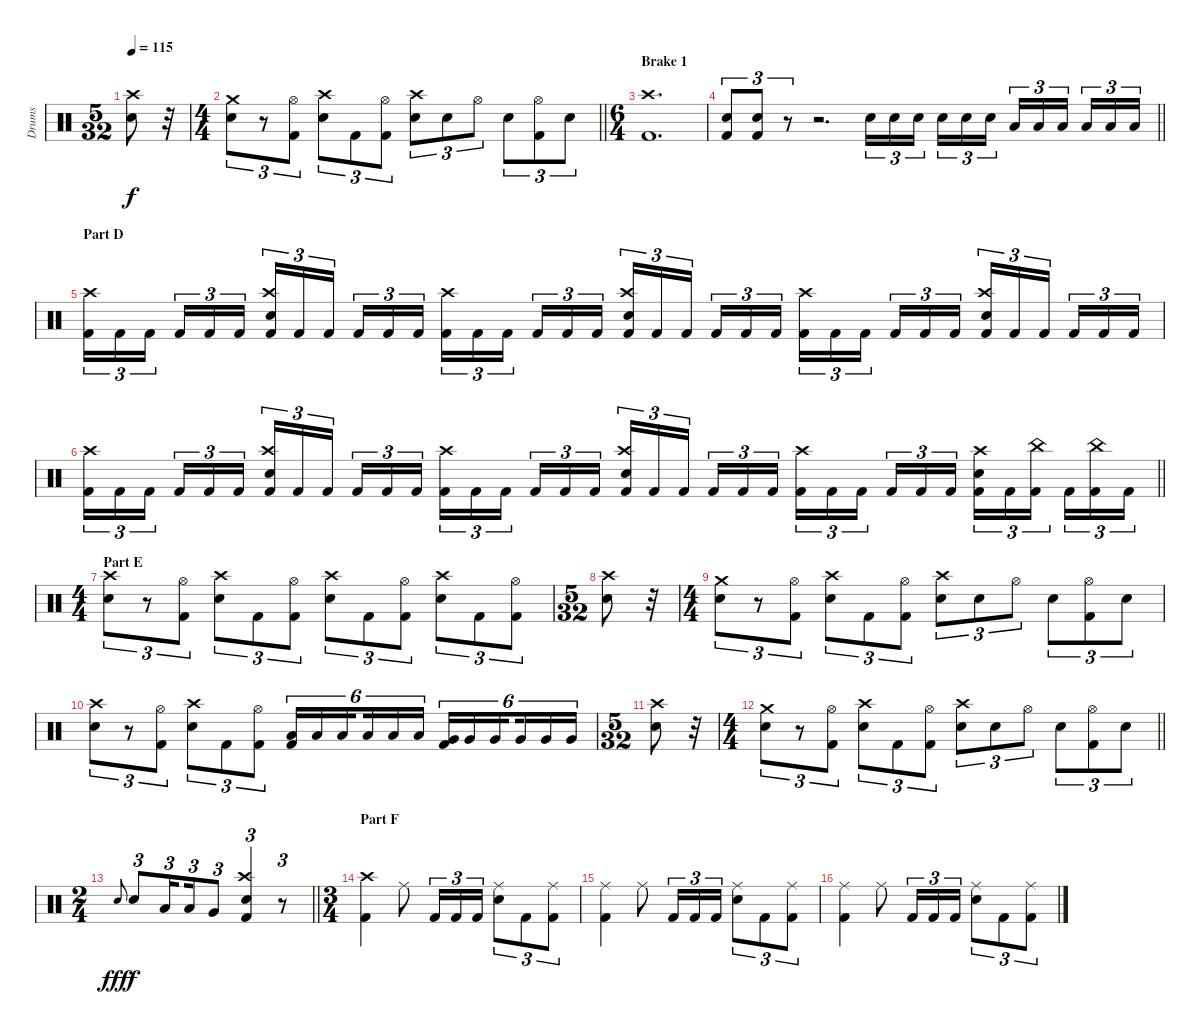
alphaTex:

\track ("Drums" "Drums") {instrument percussion}
\staff {score}
\articulation defaults
\ts (5 32)
\tempo 115
\clef neutral
\ks c
("Snare (hit) 2" "Crash high (hit)").8{dy f} r.32 |
\ts (4 4)
\barLineRight lightlight
("Crash medium (hit)" "Snare (hit) 2").8{tu (3 2)} r.8{tu (3 2)} ("Hi-Hat (open)" "Kick (hit) 2").8{tu (3 2)} ("Crash high (hit)" "Snare (hit) 2").8{tu (3 2)} "Kick (hit) 2".8{tu (3 2)} ("Kick (hit) 2" "Hi-Hat (open)").8{tu (3 2)} ("Snare (hit) 2" "Crash high (hit)").8{tu (3 2)} "Snare (hit) 2".8{tu (3 2)} "Hi-Hat (open)".8{tu (3 2)} "Snare (hit) 2".8{tu (3 2)} ("Hi-Hat (open)" "Kick (hit) 2").8{tu (3 2)} "Snare (hit) 2".8{tu (3 2)} |
\ts (6 4)
\section ("" "Brake 1")
("Kick (hit) 2" "Crash high (hit)").1{d} |
\barLineRight lightlight
("Snare (hit) 2" "Kick (hit) 2").8{tu (3 2)} ("Snare (hit) 2" "Kick (hit) 2").8{tu (3 2)} r.8{tu (3 2)} r.2{d} "Snare (hit) 2".16{tu (3 2)} "Snare (hit) 2".16{tu (3 2)} "Snare (hit) 2".16{tu (3 2) beam splitsecondary} "Snare (hit) 2".16{tu (3 2)} "Snare (hit) 2".16{tu (3 2)} "Snare (hit) 2".16{tu (3 2) beam splitsecondary} "Low Tom (hit)".16{tu (3 2)} "Low Tom (hit)".16{tu (3 2)} "Low Tom (hit)".16{tu (3 2) beam splitsecondary} "Low Tom (hit)".16{tu (3 2)} "Low Tom (hit)".16{tu (3 2)} "Low Tom (hit)".16{tu (3 2)} |
\section ("" "Part D")
("Kick (hit) 2" "Crash high (hit)").16{tu (3 2)} "Kick (hit) 2".16{tu (3 2)} "Kick (hit) 2".16{tu (3 2) beam splitsecondary} "Kick (hit) 2".16{tu (3 2)} "Kick (hit) 2".16{tu (3 2)} "Kick (hit) 2".16{tu (3 2) beam splitsecondary} ("Kick (hit) 2" "Crash high (hit)" "Snare (hit) 2").16{tu (3 2)} "Kick (hit) 2".16{tu (3 2)} "Kick (hit) 2".16{tu (3 2) beam splitsecondary} "Kick (hit) 2".16{tu (3 2)} "Kick (hit) 2".16{tu (3 2)} "Kick (hit) 2".16{tu (3 2) beam splitsecondary} ("Kick (hit) 2" "Crash high (hit)").16{tu (3 2)} "Kick (hit) 2".16{tu (3 2)} "Kick (hit) 2".16{tu (3 2) beam splitsecondary} "Kick (hit) 2".16{tu (3 2)} "Kick (hit) 2".16{tu (3 2)} "Kick (hit) 2".16{tu (3 2)} ("Kick (hit) 2" "Crash high (hit)" "Snare (hit) 2").16{tu (3 2)} "Kick (hit) 2".16{tu (3 2)} "Kick (hit) 2".16{tu (3 2) beam splitsecondary} "Kick (hit) 2".16{tu (3 2)} "Kick (hit) 2".16{tu (3 2)} "Kick (hit) 2".16{tu (3 2) beam splitsecondary} ("Kick (hit) 2" "Crash high (hit)").16{tu (3 2)} "Kick (hit) 2".16{tu (3 2)} "Kick (hit) 2".16{tu (3 2) beam splitsecondary} "Kick (hit) 2".16{tu (3 2)} "Kick (hit) 2".16{tu (3 2)} "Kick (hit) 2".16{tu (3 2) beam splitsecondary} ("Crash high (hit)" "Kick (hit) 2" "Snare (hit) 2").16{tu (3 2)} "Kick (hit) 2".16{tu (3 2)} "Kick (hit) 2".16{tu (3 2) beam splitsecondary} "Kick (hit) 2".16{tu (3 2)} "Kick (hit) 2".16{tu (3 2)} "Kick (hit) 2".16{tu (3 2)} |
\barLineRight lightlight
("Kick (hit) 2" "Crash high (hit)").16{tu (3 2)} "Kick (hit) 2".16{tu (3 2)} "Kick (hit) 2".16{tu (3 2) beam splitsecondary} "Kick (hit) 2".16{tu (3 2)} "Kick (hit) 2".16{tu (3 2)} "Kick (hit) 2".16{tu (3 2) beam splitsecondary} ("Kick (hit) 2" "Crash high (hit)" "Snare (hit) 2").16{tu (3 2)} "Kick (hit) 2".16{tu (3 2)} "Kick (hit) 2".16{tu (3 2) beam splitsecondary} "Kick (hit) 2".16{tu (3 2)} "Kick (hit) 2".16{tu (3 2)} "Kick (hit) 2".16{tu (3 2) beam splitsecondary} ("Kick (hit) 2" "Crash high (hit)").16{tu (3 2)} "Kick (hit) 2".16{tu (3 2)} "Kick (hit) 2".16{tu (3 2) beam splitsecondary} "Kick (hit) 2".16{tu (3 2)} "Kick (hit) 2".16{tu (3 2)} "Kick (hit) 2".16{tu (3 2)} ("Kick (hit) 2" "Crash high (hit)" "Snare (hit) 2").16{tu (3 2)} "Kick (hit) 2".16{tu (3 2)} "Kick (hit) 2".16{tu (3 2) beam splitsecondary} "Kick (hit) 2".16{tu (3 2)} "Kick (hit) 2".16{tu (3 2)} "Kick (hit) 2".16{tu (3 2) beam splitsecondary} ("Kick (hit) 2" "Crash high (hit)").16{tu (3 2)} "Kick (hit) 2".16{tu (3 2)} "Kick (hit) 2".16{tu (3 2) beam splitsecondary} "Kick (hit) 2".16{tu (3 2)} "Kick (hit) 2".16{tu (3 2)} "Kick (hit) 2".16{tu (3 2) beam splitsecondary} ("Crash high (hit)" "Kick (hit) 2" "Snare (hit) 2").16{tu (3 2)} "Kick (hit) 2".16{tu (3 2)} ("China (hit)" "Kick (hit) 2").16{tu (3 2) beam splitsecondary} "Kick (hit) 2".16{tu (3 2)} ("China (hit)" "Kick (hit) 2").16{tu (3 2)} "Kick (hit) 2".16{tu (3 2)} |
\ts (4 4)
\section ("" "Part E")
("Crash high (hit)" "Snare (hit) 2").8{tu (3 2)} r.8{tu (3 2)} ("Hi-Hat (open)" "Kick (hit) 2").8{tu (3 2)} ("Crash high (hit)" "Snare (hit) 2").8{tu (3 2)} "Kick (hit) 2".8{tu (3 2)} ("Kick (hit) 2" "Hi-Hat (open)").8{tu (3 2)} ("Snare (hit) 2" "Crash high (hit)").8{tu (3 2)} "Kick (hit) 2".8{tu (3 2)} ("Kick (hit) 2" "Hi-Hat (open)").8{tu (3 2)} ("Snare (hit) 2" "Crash high (hit)").8{tu (3 2)} "Kick (hit) 2".8{tu (3 2)} ("Kick (hit) 2" "Hi-Hat (open)").8{tu (3 2)} |
\ts (5 32)
("Snare (hit) 2" "Crash high (hit)").8 r.32 |
\ts (4 4)
("Crash medium (hit)" "Snare (hit) 2").8{tu (3 2)} r.8{tu (3 2)} ("Hi-Hat (open)" "Kick (hit) 2").8{tu (3 2)} ("Crash high (hit)" "Snare (hit) 2").8{tu (3 2)} "Kick (hit) 2".8{tu (3 2)} ("Kick (hit) 2" "Hi-Hat (open)").8{tu (3 2)} ("Snare (hit) 2" "Crash high (hit)").8{tu (3 2)} "Snare (hit) 2".8{tu (3 2)} "Hi-Hat (open)".8{tu (3 2)} "Snare (hit) 2".8{tu (3 2)} ("Hi-Hat (open)" "Kick (hit) 2").8{tu (3 2)} "Snare (hit) 2".8{tu (3 2)} |
("Crash high (hit)" "Snare (hit) 2").8{tu (3 2)} r.8{tu (3 2)} ("Hi-Hat (open)" "Kick (hit) 2").8{tu (3 2)} ("Crash high (hit)" "Snare (hit) 2").8{tu (3 2)} "Kick (hit) 2".8{tu (3 2)} ("Kick (hit) 2" "Hi-Hat (open)").8{tu (3 2)} ("Kick (hit) 2" "Low Tom (hit)").16{tu (6 4)} "Low Tom (hit)".16{tu (6 4)} "Low Tom (hit)".16{tu (6 4) beam splitsecondary} "Low Tom (hit)".16{tu (6 4)} "Low Tom (hit)".16{tu (6 4)} "Low Tom (hit)".16{tu (6 4)} ("Kick (hit) 2" "Very Low Tom (hit)").16{tu (6 4)} "Very Low Tom (hit)".16{tu (6 4)} "Very Low Tom (hit)".16{tu (6 4) beam splitsecondary} "Very Low Tom (hit)".16{tu (6 4)} "Very Low Tom (hit)".16{tu (6 4)} "Very Low Tom (hit)".16{tu (6 4)} |
\ts (5 32)
("Snare (hit) 2" "Crash high (hit)").8 r.32 |
\ts (4 4)
\barLineRight lightlight
("Crash medium (hit)" "Snare (hit) 2").8{tu (3 2)} r.8{tu (3 2)} ("Hi-Hat (open)" "Kick (hit) 2").8{tu (3 2)} ("Crash high (hit)" "Snare (hit) 2").8{tu (3 2)} "Kick (hit) 2".8{tu (3 2)} ("Kick (hit) 2" "Hi-Hat (open)").8{tu (3 2)} ("Snare (hit) 2" "Crash high (hit)").8{tu (3 2)} "Snare (hit) 2".8{tu (3 2)} "Hi-Hat (open)".8{tu (3 2)} "Snare (hit) 2".8{tu (3 2)} ("Hi-Hat (open)" "Kick (hit) 2").8{tu (3 2)} "Snare (hit) 2".8{tu (3 2)} |
\ts (2 4)
\barLineRight lightlight "Snare (hit) 2".8{gr onbeat dy fff} "Snare (hit) 2".8{tu (3 2) dy f} "Low Tom (hit)".16{tu (3 2) beam splitsecondary} "Low Tom (hit)".16{tu (3 2)} "Very Low Tom (hit)".8{tu (3 2)}
("Crash high (hit)" "Kick (hit) 2" "Snare (hit) 2").4{tu (3 2)} r.8{tu (3 2)} |
\ts (3 4)
\section ("" "Part F")
("Crash high (hit)" "Kick (hit) 2").4 "Ride (middle)".8 "Kick (hit) 2".16{tu (3 2)} "Kick (hit) 2".16{tu (3 2)} "Kick (hit) 2".16{tu (3 2)} ("Snare (hit) 2" "Ride (middle)").8{tu (3 2)} "Kick (hit) 2".8{tu (3 2)} ("Kick (hit) 2" "Ride (middle)").8{tu (3 2)} |
("Ride (middle)" "Kick (hit) 2").4 "Ride (middle)".8 "Kick (hit) 2".16{tu (3 2)} "Kick (hit) 2".16{tu (3 2)} "Kick (hit) 2".16{tu (3 2)} ("Snare (hit) 2" "Ride (middle)").8{tu (3 2)} "Kick (hit) 2".8{tu (3 2)} ("Kick (hit) 2" "Ride (middle)").8{tu (3 2)} |
("Ride (middle)" "Kick (hit) 2").4 "Ride (middle)".8 "Kick (hit) 2".16{tu (3 2)} "Kick (hit) 2".16{tu (3 2)} "Kick (hit) 2".16{tu (3 2)} ("Snare (hit) 2" "Ride (middle)").8{tu (3 2)} "Kick (hit) 2".8{tu (3 2)} ("Kick (hit) 2" "Ride (middle)").8{tu (3 2)}
